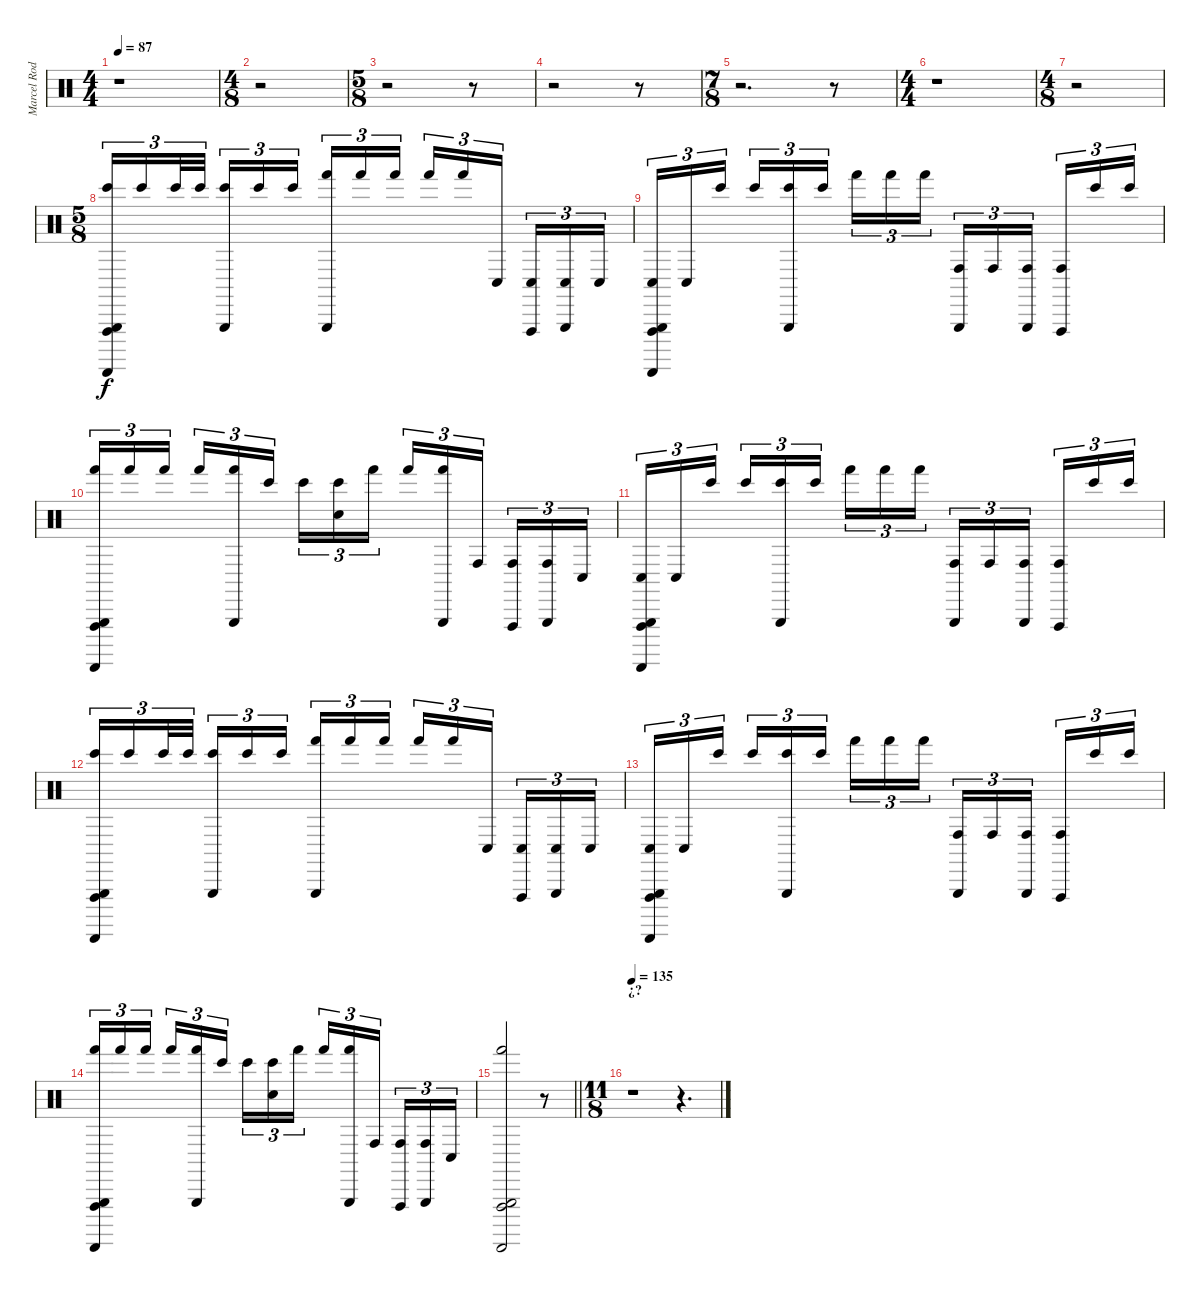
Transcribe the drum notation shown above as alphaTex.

\track ("Marcel Rodriguez-Lopez" "Marcel Rod") {instrument percussion}
\staff {score}
\articulation defaults
\ts (4 4)
\tempo 87
\clef neutral
\ks c
r.1{dy f} |
\ts (4 8)
r.2 |
\ts (5 8)
r.2 r.8 |
r.2 r.8 |
\ts (7 8)
r.2{d} r.8 |
\ts (4 4)
r.1 |
\ts (4 8)
r.2 |
\ts (5 8)
("Triangle (hit)" "Guiro (scrap-return)" "Vibraslap (hit)" "Bongo High (hit)").16{tu (3 2)} "Bongo High (hit)".16{tu (3 2)} "Bongo High (hit)".32{tu (3 2)} "Bongo High (hit)".32{tu (3 2)} ("Triangle (hit)" "Bongo High (hit)").16{tu (3 2)} "Bongo High (hit)".16{tu (3 2)} "Bongo High (hit)".16{tu (3 2)} ("Triangle (hit)" "Hand (hit)").16{tu (3 2)} "Hand (hit)".16{tu (3 2)} "Hand (hit)".16{tu (3 2)} "Hand (hit)".16{tu (3 2)} "Hand (hit)".16{tu (3 2)} "Conga low (hit)".16{tu (3 2)} ("Vibraslap (hit)" "Conga low (hit)").16{tu (3 2)} ("Triangle (hit)" "Conga low (hit)").16{tu (3 2)} "Conga low (hit)".16{tu (3 2)} |
("Triangle (hit)" "Guiro (scrap-return)" "Vibraslap (hit)" "Conga low (hit)").16{tu (3 2)} "Conga low (hit)".16{tu (3 2)} "Bongo High (hit)".16{tu (3 2)} "Bongo High (hit)".16{tu (3 2)} ("Triangle (hit)" "Bongo High (hit)").16{tu (3 2)} "Bongo High (hit)".16{tu (3 2)} "Hand (hit)".16{tu (3 2)} "Hand (hit)".16{tu (3 2)} "Hand (hit)".16{tu (3 2)} ("Triangle (hit)" "Conga high (hit)").16{tu (3 2)} "Conga high (hit)".16{tu (3 2)} ("Triangle (hit)" "Conga high (hit)").16{tu (3 2)} ("Vibraslap (hit)" "Conga high (hit)").16{tu (3 2)} "Bongo High (hit)".16{tu (3 2)} "Bongo High (hit)".16{tu (3 2)} |
("Triangle (hit)" "Guiro (scrap-return)" "Vibraslap (hit)" "Hand (hit)").16{tu (3 2)} "Hand (hit)".16{tu (3 2)} "Hand (hit)".16{tu (3 2)} "Hand (hit)".16{tu (3 2)} ("Triangle (hit)" "Hand (hit)").16{tu (3 2)} "Bongo High (hit)".16{tu (3 2)} "Bongo High (hit)".16{tu (3 2)} ("Snare (hit)" "Bongo High (hit)").16{tu (3 2)} "Hand (hit)".16{tu (3 2)} "Hand (hit)".16{tu (3 2)} ("Triangle (hit)" "Hand (hit)").16{tu (3 2)} "Conga high (hit)".16{tu (3 2)} ("Vibraslap (hit)" "Conga high (hit)").16{tu (3 2)} ("Triangle (hit)" "Conga high (hit)").16{tu (3 2)} "Conga low (hit)".16{tu (3 2)} |
("Triangle (hit)" "Guiro (scrap-return)" "Vibraslap (hit)" "Conga low (hit)").16{tu (3 2)} "Conga low (hit)".16{tu (3 2)} "Bongo High (hit)".16{tu (3 2)} "Bongo High (hit)".16{tu (3 2)} ("Triangle (hit)" "Bongo High (hit)").16{tu (3 2)} "Bongo High (hit)".16{tu (3 2)} "Hand (hit)".16{tu (3 2)} "Hand (hit)".16{tu (3 2)} "Hand (hit)".16{tu (3 2)} ("Triangle (hit)" "Conga high (hit)").16{tu (3 2)} "Conga high (hit)".16{tu (3 2)} ("Triangle (hit)" "Conga high (hit)").16{tu (3 2)} ("Vibraslap (hit)" "Conga high (hit)").16{tu (3 2)} "Bongo High (hit)".16{tu (3 2)} "Bongo High (hit)".16{tu (3 2)} |
("Triangle (hit)" "Guiro (scrap-return)" "Vibraslap (hit)" "Bongo High (hit)").16{tu (3 2)} "Bongo High (hit)".16{tu (3 2)} "Bongo High (hit)".32{tu (3 2)} "Bongo High (hit)".32{tu (3 2)} ("Triangle (hit)" "Bongo High (hit)").16{tu (3 2)} "Bongo High (hit)".16{tu (3 2)} "Bongo High (hit)".16{tu (3 2)} ("Triangle (hit)" "Hand (hit)").16{tu (3 2)} "Hand (hit)".16{tu (3 2)} "Hand (hit)".16{tu (3 2)} "Hand (hit)".16{tu (3 2)} "Hand (hit)".16{tu (3 2)} "Conga low (hit)".16{tu (3 2)} ("Vibraslap (hit)" "Conga low (hit)").16{tu (3 2)} ("Triangle (hit)" "Conga low (hit)").16{tu (3 2)} "Conga low (hit)".16{tu (3 2)} |
("Triangle (hit)" "Guiro (scrap-return)" "Vibraslap (hit)" "Conga low (hit)").16{tu (3 2)} "Conga low (hit)".16{tu (3 2)} "Bongo High (hit)".16{tu (3 2)} "Bongo High (hit)".16{tu (3 2)} ("Triangle (hit)" "Bongo High (hit)").16{tu (3 2)} "Bongo High (hit)".16{tu (3 2)} "Hand (hit)".16{tu (3 2)} "Hand (hit)".16{tu (3 2)} "Hand (hit)".16{tu (3 2)} ("Triangle (hit)" "Conga high (hit)").16{tu (3 2)} "Conga high (hit)".16{tu (3 2)} ("Triangle (hit)" "Conga high (hit)").16{tu (3 2)} ("Vibraslap (hit)" "Conga high (hit)").16{tu (3 2)} "Bongo High (hit)".16{tu (3 2)} "Bongo High (hit)".16{tu (3 2)} |
("Triangle (hit)" "Guiro (scrap-return)" "Vibraslap (hit)" "Hand (hit)").16{tu (3 2)} "Hand (hit)".16{tu (3 2)} "Hand (hit)".16{tu (3 2)} "Hand (hit)".16{tu (3 2)} ("Triangle (hit)" "Hand (hit)").16{tu (3 2)} "Bongo High (hit)".16{tu (3 2)} "Bongo High (hit)".16{tu (3 2)} ("Snare (hit)" "Bongo High (hit)").16{tu (3 2)} "Hand (hit)".16{tu (3 2)} "Hand (hit)".16{tu (3 2)} ("Triangle (hit)" "Hand (hit)").16{tu (3 2)} "Conga high (hit)".16{tu (3 2)} ("Vibraslap (hit)" "Conga high (hit)").16{tu (3 2)} ("Triangle (hit)" "Conga high (hit)").16{tu (3 2)} "Conga low (hit)".16{tu (3 2)} |
\barLineRight lightlight
("Triangle (hit)" "Guiro (scrap-return)" "Vibraslap (hit)" "Hand (hit)").2 r.8 |
\ts (11 8)
\section ("" "¿?")
\tempo 135
r.1 r.4{d}
